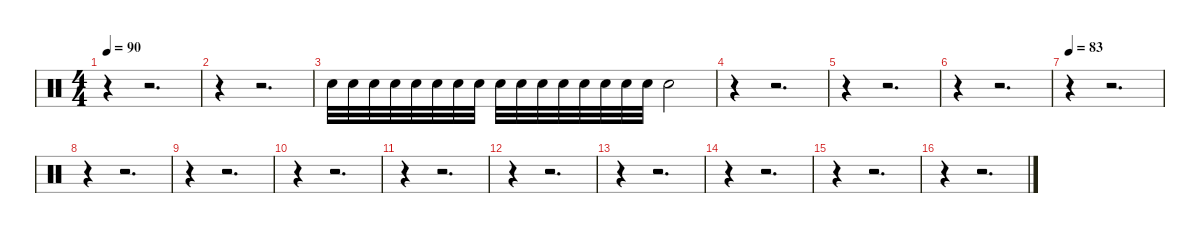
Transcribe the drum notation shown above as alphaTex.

\defaultSystemsLayout 4
\hideDynamics
\bracketExtendMode nobrackets
\singleTrackTrackNamePolicy hidden
\multiTrackTrackNamePolicy hidden
\firstSystemTrackNameMode fullname
\firstSystemTrackNameOrientation horizontal
\otherSystemsTrackNameOrientation horizontal
\track ("Percussions" "drm.") {instrument percussion}
\staff {score}
\articulation defaults
\ts (4 4)
\tempo 90
\clef neutral
\ks c
r.4{dy ppp beam Down} r.2{d beam Down} |
r.4{beam Down} r.2{d beam Down} |
"Snare (hit) 2".32{beam Down} "Snare (hit) 2".32{beam Down} "Snare (hit) 2".32{beam Down} "Snare (hit) 2".32{dy pp beam Down} "Snare (hit) 2".32{beam Down} "Snare (hit) 2".32{beam Down} "Snare (hit) 2".32{beam Down} "Snare (hit) 2".32{beam Down} "Snare (hit) 2".32{beam Down} "Snare (hit) 2".32{dy p beam Down} "Snare (hit) 2".32{beam Down} "Snare (hit) 2".32{beam Down} "Snare (hit) 2".32{beam Down} "Snare (hit) 2".32{dy mp beam Down} "Snare (hit) 2".32{beam Down} "Snare (hit) 2".32{beam Down} "Snare (hit) 2".2{dy mf beam Down} |
r.4{beam Down} r.2{d beam Down} |
r.4{beam Down} r.2{d beam Down} |
r.4{beam Down} r.2{d beam Down} |
\tempo 83
r.4{beam Down} r.2{d beam Down} |
r.4{beam Down} r.2{d beam Down} |
r.4{beam Down} r.2{d beam Down} |
r.4{beam Down} r.2{d beam Down} |
r.4{beam Down} r.2{d beam Down} |
r.4{beam Down} r.2{d beam Down} |
r.4{beam Down} r.2{d beam Down} |
r.4{beam Down} r.2{d beam Down} |
r.4{beam Down} r.2{d beam Down} |
r.4{beam Down} r.2{d beam Down}
